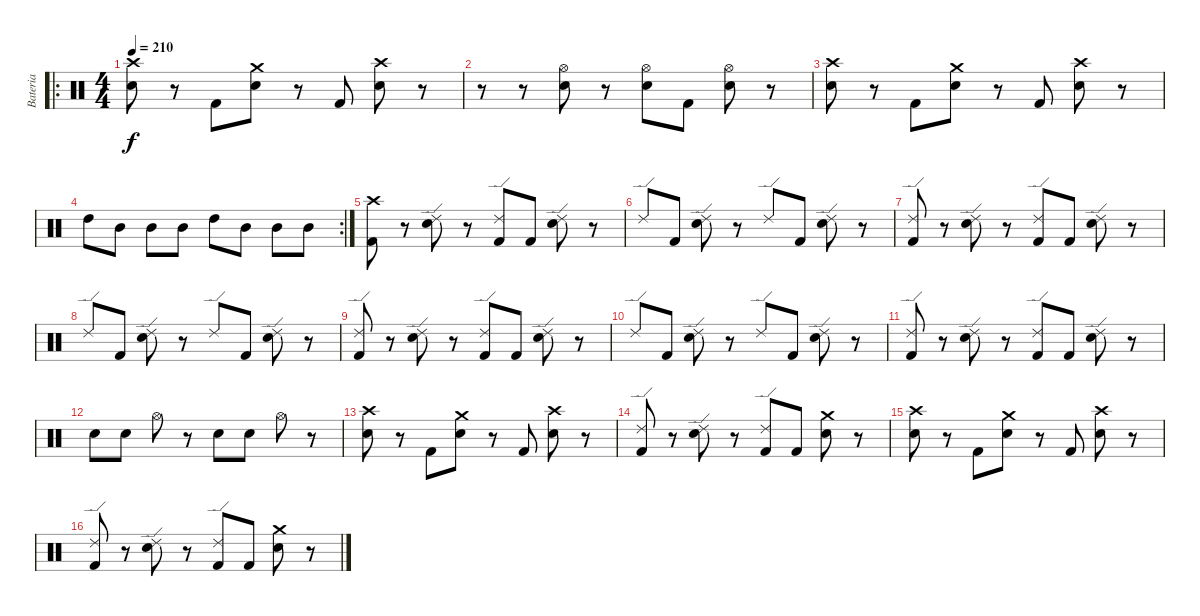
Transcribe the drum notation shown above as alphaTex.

\track ("Bateria" "Bateria") {instrument percussion}
\staff {score}
\articulation defaults
\ro
\ts (4 4)
\tempo 210
\clef neutral
\ks c
("Crash high (hit)" "Snare (hit) 2").8{dy f} r.8 "Kick (hit) 2".8 ("Crash medium (hit)" "Snare (hit) 2").8 r.8 "Kick (hit) 2".8 ("Crash high (hit)" "Snare (hit) 2").8 r.8 |
r.8 r.8 ("Hi-Hat (open)" "Snare (hit) 2").8 r.8 ("Hi-Hat (open)" "Snare (hit) 2").8 "Kick (hit) 2".8 ("Hi-Hat (open)" "Snare (hit) 2").8 r.8 |
("Crash high (hit)" "Snare (hit) 2").8 r.8 "Kick (hit) 2".8 ("Crash medium (hit)" "Snare (hit) 2").8 r.8 "Kick (hit) 2".8 ("Crash high (hit)" "Snare (hit) 2").8 r.8 |
\rc 2 "High Tom (hit)".8 "Mid Tom (hit)".8 "Mid Tom (hit)".8 "Mid Tom (hit)".8 "High Tom (hit)".8 "Mid Tom (hit)".8 "Mid Tom (hit)".8 "Mid Tom (hit)".8
|
("Crash high (hit)" "Kick (hit) 2").8 r.8 ("Ride (edge) 2" "Snare (hit) 2").8 r.8 ("Ride (edge) 2" "Kick (hit) 2").8 "Kick (hit) 2".8 ("Ride (edge) 2" "Snare (hit) 2").8 r.8 |
"Ride (edge) 2".8 "Kick (hit) 2".8 ("Ride (edge) 2" "Snare (hit) 2").8 r.8 "Ride (edge) 2".8 "Kick (hit) 2".8 ("Ride (edge) 2" "Snare (hit) 2").8 r.8 |
("Ride (edge) 2" "Kick (hit) 2").8 r.8 ("Ride (edge) 2" "Snare (hit) 2").8 r.8 ("Ride (edge) 2" "Kick (hit) 2").8 "Kick (hit) 2".8 ("Ride (edge) 2" "Snare (hit) 2").8 r.8 |
"Ride (edge) 2".8 "Kick (hit) 2".8 ("Ride (edge) 2" "Snare (hit) 2").8 r.8 "Ride (edge) 2".8 "Kick (hit) 2".8 ("Ride (edge) 2" "Snare (hit) 2").8 r.8 |
("Ride (edge) 2" "Kick (hit) 2").8 r.8 ("Ride (edge) 2" "Snare (hit) 2").8 r.8 ("Ride (edge) 2" "Kick (hit) 2").8 "Kick (hit) 2".8 ("Ride (edge) 2" "Snare (hit) 2").8 r.8 |
"Ride (edge) 2".8 "Kick (hit) 2".8 ("Ride (edge) 2" "Snare (hit) 2").8 r.8 "Ride (edge) 2".8 "Kick (hit) 2".8 ("Ride (edge) 2" "Snare (hit) 2").8 r.8 |
("Ride (edge) 2" "Kick (hit) 2").8 r.8 ("Ride (edge) 2" "Snare (hit) 2").8 r.8 ("Ride (edge) 2" "Kick (hit) 2").8 "Kick (hit) 2".8 ("Ride (edge) 2" "Snare (hit) 2").8 r.8 |
"Snare (hit) 2".8 "Snare (hit) 2".8 "Hi-Hat (open)".8 r.8 "Snare (hit) 2".8 "Snare (hit) 2".8 "Hi-Hat (open)".8 r.8 |
("Crash high (hit)" "Snare (hit) 2").8 r.8 "Kick (hit) 2".8 ("Crash medium (hit)" "Snare (hit) 2").8 r.8 "Kick (hit) 2".8 ("Crash high (hit)" "Snare (hit) 2").8 r.8 |
("Ride (edge) 2" "Kick (hit) 2").8 r.8 ("Ride (edge) 2" "Snare (hit) 2").8 r.8 ("Ride (edge) 2" "Kick (hit) 2").8 "Kick (hit) 2".8 ("Crash medium (hit)" "Snare (hit) 2").8 r.8 |
("Crash high (hit)" "Snare (hit) 2").8 r.8 "Kick (hit) 2".8 ("Crash medium (hit)" "Snare (hit) 2").8 r.8 "Kick (hit) 2".8 ("Crash high (hit)" "Snare (hit) 2").8 r.8 |
("Ride (edge) 2" "Kick (hit) 2").8 r.8 ("Ride (edge) 2" "Snare (hit) 2").8 r.8 ("Ride (edge) 2" "Kick (hit) 2").8 "Kick (hit) 2".8 ("Crash medium (hit)" "Snare (hit) 2").8 r.8
